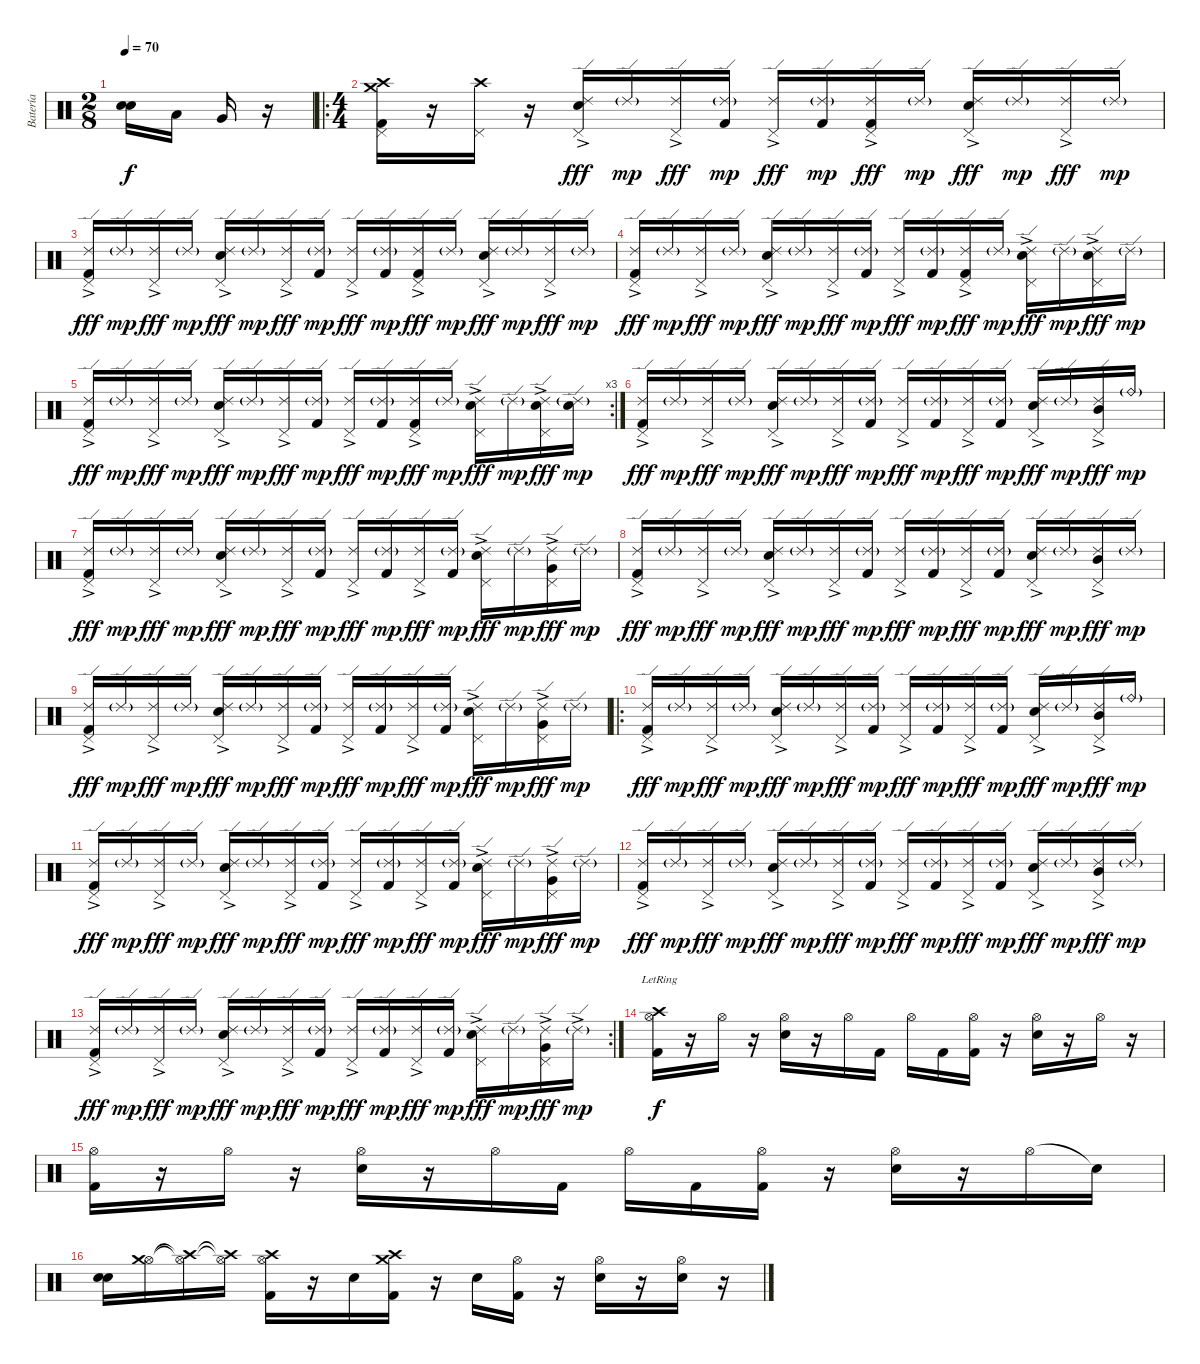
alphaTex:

\track ("Batería" "Batería") {instrument percussion}
\staff {score}
\articulation defaults
\ts (2 8)
\tempo 70
\clef neutral
\ks c
("Electric Snare (hit)" "Electric Snare (hit)").16{bd 60 dy f} "Low Tom (hit)".16 "Very Low Tom (hit)".16{bd 60} r.16 |
\ro
\ts (4 4)
("Crash medium (hit)" "Crash high (hit)" "Pedal Hi-Hat (hit)" "Kick (hit) 2").16 r.16 ("Crash high (hit)" "Pedal Hi-Hat (hit)").16 r.16 ("Ride (edge) 2"{ac} "Pedal Hi-Hat (hit)" "Electric Snare (hit)").16{dy fff} "Ride (edge) 2"{g}.16{dy mp} ("Ride (edge) 2"{ac} "Pedal Hi-Hat (hit)").16{dy fff} ("Ride (edge) 2"{g} "Kick (hit) 2").16{dy mp} ("Ride (edge) 2"{ac} "Pedal Hi-Hat (hit)").16{dy fff} ("Ride (edge) 2"{g} "Kick (hit) 2").16{dy mp} ("Ride (edge) 2"{ac} "Pedal Hi-Hat (hit)" "Kick (hit) 2").16{dy fff} "Ride (edge) 2"{g}.16{dy mp} ("Ride (edge) 2"{ac} "Pedal Hi-Hat (hit)" "Electric Snare (hit)").16{dy fff} "Ride (edge) 2"{g}.16{dy mp} ("Ride (edge) 2"{ac} "Pedal Hi-Hat (hit)").16{dy fff} "Ride (edge) 2"{g}.16{dy mp} |
("Ride (edge) 2"{ac} "Pedal Hi-Hat (hit)" "Kick (hit) 2").16{dy fff} "Ride (edge) 2"{g}.16{dy mp} ("Ride (edge) 2"{ac} "Pedal Hi-Hat (hit)").16{dy fff} "Ride (edge) 2"{g}.16{dy mp} ("Ride (edge) 2"{ac} "Pedal Hi-Hat (hit)" "Electric Snare (hit)").16{dy fff} "Ride (edge) 2"{g}.16{dy mp} ("Ride (edge) 2"{ac} "Pedal Hi-Hat (hit)").16{dy fff} ("Ride (edge) 2"{g} "Kick (hit) 2").16{dy mp} ("Ride (edge) 2"{ac} "Pedal Hi-Hat (hit)").16{dy fff} ("Ride (edge) 2"{g} "Kick (hit) 2").16{dy mp} ("Ride (edge) 2"{ac} "Pedal Hi-Hat (hit)" "Kick (hit) 2").16{dy fff} "Ride (edge) 2"{g}.16{dy mp} ("Ride (edge) 2"{ac} "Pedal Hi-Hat (hit)" "Electric Snare (hit)").16{dy fff} "Ride (edge) 2"{g}.16{dy mp} ("Ride (edge) 2"{ac} "Pedal Hi-Hat (hit)").16{dy fff} "Ride (edge) 2"{g}.16{dy mp} |
("Ride (edge) 2"{ac} "Pedal Hi-Hat (hit)" "Kick (hit) 2").16{dy fff} "Ride (edge) 2"{g}.16{dy mp} ("Ride (edge) 2"{ac} "Pedal Hi-Hat (hit)").16{dy fff} "Ride (edge) 2"{g}.16{dy mp} ("Ride (edge) 2"{ac} "Pedal Hi-Hat (hit)" "Electric Snare (hit)").16{dy fff} "Ride (edge) 2"{g}.16{dy mp} ("Ride (edge) 2"{ac} "Pedal Hi-Hat (hit)").16{dy fff} ("Ride (edge) 2"{g} "Kick (hit) 2").16{dy mp} ("Ride (edge) 2"{ac} "Pedal Hi-Hat (hit)").16{dy fff} ("Ride (edge) 2"{g} "Kick (hit) 2").16{dy mp} ("Ride (edge) 2"{ac} "Pedal Hi-Hat (hit)" "Kick (hit) 2").16{dy fff} "Ride (edge) 2"{g}.16{dy mp} ("Ride (edge) 2"{ac} "Pedal Hi-Hat (hit)" "Electric Snare (hit)").16{dy fff} "Ride (edge) 2"{g}.16{dy mp} ("Ride (edge) 2"{ac} "Pedal Hi-Hat (hit)" "Electric Snare (hit)").16{dy fff} "Ride (edge) 2"{g}.16{dy mp} |
\rc 3
("Ride (edge) 2"{ac} "Pedal Hi-Hat (hit)" "Kick (hit) 2").16{dy fff} "Ride (edge) 2"{g}.16{dy mp} ("Ride (edge) 2"{ac} "Pedal Hi-Hat (hit)").16{dy fff} "Ride (edge) 2"{g}.16{dy mp} ("Ride (edge) 2"{ac} "Pedal Hi-Hat (hit)" "Electric Snare (hit)").16{dy fff} "Ride (edge) 2"{g}.16{dy mp} ("Ride (edge) 2"{ac} "Pedal Hi-Hat (hit)").16{dy fff} ("Ride (edge) 2"{g} "Kick (hit) 2").16{dy mp} ("Ride (edge) 2"{ac} "Pedal Hi-Hat (hit)").16{dy fff} ("Ride (edge) 2"{g} "Kick (hit) 2").16{dy mp} ("Ride (edge) 2"{ac} "Pedal Hi-Hat (hit)" "Kick (hit) 2").16{dy fff} "Ride (edge) 2"{g}.16{dy mp} ("Ride (edge) 2"{ac} "Pedal Hi-Hat (hit)" "Electric Snare (hit)").16{dy fff} "Ride (edge) 2"{g}.16{dy mp} ("Ride (edge) 2"{ac} "Pedal Hi-Hat (hit)" "Electric Snare (hit)").16{dy fff} ("Ride (edge) 2"{g} "Electric Snare (hit)").16{dy mp} |
("Ride (edge) 2"{ac} "Pedal Hi-Hat (hit)" "Kick (hit) 2").16{dy fff} "Ride (edge) 2"{g}.16{dy mp} ("Ride (edge) 2"{ac} "Pedal Hi-Hat (hit)").16{dy fff} "Ride (edge) 2"{g}.16{dy mp} ("Ride (edge) 2"{ac} "Pedal Hi-Hat (hit)" "Electric Snare (hit)").16{dy fff} "Ride (edge) 2"{g}.16{dy mp} ("Ride (edge) 2"{ac} "Pedal Hi-Hat (hit)").16{dy fff} ("Ride (edge) 2"{g} "Kick (hit) 2").16{dy mp} ("Ride (edge) 2"{ac} "Pedal Hi-Hat (hit)").16{dy fff} ("Ride (edge) 2"{g} "Kick (hit) 2").16{dy mp} ("Ride (edge) 2"{ac} "Pedal Hi-Hat (hit)").16{dy fff} ("Ride (edge) 2"{g} "Kick (hit) 2").16{dy mp} ("Ride (edge) 2"{ac} "Pedal Hi-Hat (hit)" "Electric Snare (hit)").16{dy fff} "Ride (edge) 2"{g}.16{dy mp} ("Ride (edge) 2"{ac} "Pedal Hi-Hat (hit)" "Mid Tom (hit)"{ac}).16{dy fff} "Ride (bell)"{g}.16{dy mp} |
("Ride (edge) 2"{ac} "Pedal Hi-Hat (hit)" "Kick (hit) 2").16{dy fff} "Ride (edge) 2"{g}.16{dy mp} ("Ride (edge) 2"{ac} "Pedal Hi-Hat (hit)").16{dy fff} "Ride (edge) 2"{g}.16{dy mp} ("Ride (edge) 2"{ac} "Pedal Hi-Hat (hit)" "Electric Snare (hit)").16{dy fff} "Ride (edge) 2"{g}.16{dy mp} ("Ride (edge) 2"{ac} "Pedal Hi-Hat (hit)").16{dy fff} ("Ride (edge) 2"{g} "Kick (hit) 2").16{dy mp} ("Ride (edge) 2"{ac} "Pedal Hi-Hat (hit)").16{dy fff} ("Ride (edge) 2"{g} "Kick (hit) 2").16{dy mp} ("Ride (edge) 2"{ac} "Pedal Hi-Hat (hit)").16{dy fff} ("Ride (edge) 2"{g} "Kick (hit) 2").16{dy mp} ("Ride (edge) 2"{ac} "Pedal Hi-Hat (hit)" "Electric Snare (hit)").16{dy fff} "Ride (edge) 2"{g}.16{dy mp} ("Ride (edge) 2"{ac} "Pedal Hi-Hat (hit)" "Very Low Tom (hit)"{ac}).16{dy fff} "Ride (edge) 2"{g}.16{dy mp} |
("Ride (edge) 2"{ac} "Pedal Hi-Hat (hit)" "Kick (hit) 2").16{dy fff} "Ride (edge) 2"{g}.16{dy mp} ("Ride (edge) 2"{ac} "Pedal Hi-Hat (hit)").16{dy fff} "Ride (edge) 2"{g}.16{dy mp} ("Ride (edge) 2"{ac} "Pedal Hi-Hat (hit)" "Electric Snare (hit)").16{dy fff} "Ride (edge) 2"{g}.16{dy mp} ("Ride (edge) 2"{ac} "Pedal Hi-Hat (hit)").16{dy fff} ("Ride (edge) 2"{g} "Kick (hit) 2").16{dy mp} ("Ride (edge) 2"{ac} "Pedal Hi-Hat (hit)").16{dy fff} ("Ride (edge) 2"{g} "Kick (hit) 2").16{dy mp} ("Ride (edge) 2"{ac} "Pedal Hi-Hat (hit)").16{dy fff} ("Ride (edge) 2"{g} "Kick (hit) 2").16{dy mp} ("Ride (edge) 2"{ac} "Pedal Hi-Hat (hit)" "Electric Snare (hit)").16{dy fff} "Ride (edge) 2"{g}.16{dy mp} ("Ride (edge) 2"{ac} "Pedal Hi-Hat (hit)" "Mid Tom (hit)"{ac}).16{dy fff} "Ride (edge) 2"{g}.16{dy mp} |
("Ride (edge) 2"{ac} "Pedal Hi-Hat (hit)" "Kick (hit) 2").16{dy fff} "Ride (edge) 2"{g}.16{dy mp} ("Ride (edge) 2"{ac} "Pedal Hi-Hat (hit)").16{dy fff} "Ride (edge) 2"{g}.16{dy mp} ("Ride (edge) 2"{ac} "Pedal Hi-Hat (hit)" "Electric Snare (hit)").16{dy fff} "Ride (edge) 2"{g}.16{dy mp} ("Ride (edge) 2"{ac} "Pedal Hi-Hat (hit)").16{dy fff} ("Ride (edge) 2"{g} "Kick (hit) 2").16{dy mp} ("Ride (edge) 2"{ac} "Pedal Hi-Hat (hit)").16{dy fff} ("Ride (edge) 2"{g} "Kick (hit) 2").16{dy mp} ("Ride (edge) 2"{ac} "Pedal Hi-Hat (hit)").16{dy fff} ("Ride (edge) 2"{g} "Kick (hit) 2").16{dy mp} ("Ride (edge) 2"{ac} "Pedal Hi-Hat (hit)" "Electric Snare (hit)").16{dy fff} "Ride (edge) 2"{g}.16{dy mp} ("Ride (edge) 2"{ac} "Pedal Hi-Hat (hit)" "Very Low Tom (hit)"{ac}).16{dy fff} "Ride (edge) 2"{g}.16{dy mp} |
\ro
("Ride (edge) 2"{ac} "Pedal Hi-Hat (hit)" "Kick (hit) 2").16{dy fff} "Ride (edge) 2"{g}.16{dy mp} ("Ride (edge) 2"{ac} "Pedal Hi-Hat (hit)").16{dy fff} "Ride (edge) 2"{g}.16{dy mp} ("Ride (edge) 2"{ac} "Pedal Hi-Hat (hit)" "Electric Snare (hit)").16{dy fff} "Ride (edge) 2"{g}.16{dy mp} ("Ride (edge) 2"{ac} "Pedal Hi-Hat (hit)").16{dy fff} ("Ride (edge) 2"{g} "Kick (hit) 2").16{dy mp} ("Ride (edge) 2"{ac} "Pedal Hi-Hat (hit)").16{dy fff} ("Ride (edge) 2"{g} "Kick (hit) 2").16{dy mp} ("Ride (edge) 2"{ac} "Pedal Hi-Hat (hit)").16{dy fff} ("Ride (edge) 2"{g} "Kick (hit) 2").16{dy mp} ("Ride (edge) 2"{ac} "Pedal Hi-Hat (hit)" "Electric Snare (hit)").16{dy fff} "Ride (edge) 2"{g}.16{dy mp} ("Ride (edge) 2"{ac} "Pedal Hi-Hat (hit)" "Mid Tom (hit)"{ac}).16{dy fff} "Ride (bell)"{g}.16{dy mp} |
("Ride (edge) 2"{ac} "Pedal Hi-Hat (hit)" "Kick (hit) 2").16{dy fff} "Ride (edge) 2"{g}.16{dy mp} ("Ride (edge) 2"{ac} "Pedal Hi-Hat (hit)").16{dy fff} "Ride (edge) 2"{g}.16{dy mp} ("Ride (edge) 2"{ac} "Pedal Hi-Hat (hit)" "Electric Snare (hit)").16{dy fff} "Ride (edge) 2"{g}.16{dy mp} ("Ride (edge) 2"{ac} "Pedal Hi-Hat (hit)").16{dy fff} ("Ride (edge) 2"{g} "Kick (hit) 2").16{dy mp} ("Ride (edge) 2"{ac} "Pedal Hi-Hat (hit)").16{dy fff} ("Ride (edge) 2"{g} "Kick (hit) 2").16{dy mp} ("Ride (edge) 2"{ac} "Pedal Hi-Hat (hit)").16{dy fff} ("Ride (edge) 2"{g} "Kick (hit) 2").16{dy mp} ("Ride (edge) 2"{ac} "Pedal Hi-Hat (hit)" "Electric Snare (hit)").16{dy fff} "Ride (edge) 2"{g}.16{dy mp} ("Ride (edge) 2"{ac} "Pedal Hi-Hat (hit)" "Very Low Tom (hit)"{ac}).16{dy fff} "Ride (edge) 2"{g}.16{dy mp} |
("Ride (edge) 2"{ac} "Pedal Hi-Hat (hit)" "Kick (hit) 2").16{dy fff} "Ride (edge) 2"{g}.16{dy mp} ("Ride (edge) 2"{ac} "Pedal Hi-Hat (hit)").16{dy fff} "Ride (edge) 2"{g}.16{dy mp} ("Ride (edge) 2"{ac} "Pedal Hi-Hat (hit)" "Electric Snare (hit)").16{dy fff} "Ride (edge) 2"{g}.16{dy mp} ("Ride (edge) 2"{ac} "Pedal Hi-Hat (hit)").16{dy fff} ("Ride (edge) 2"{g} "Kick (hit) 2").16{dy mp} ("Ride (edge) 2"{ac} "Pedal Hi-Hat (hit)").16{dy fff} ("Ride (edge) 2"{g} "Kick (hit) 2").16{dy mp} ("Ride (edge) 2"{ac} "Pedal Hi-Hat (hit)").16{dy fff} ("Ride (edge) 2"{g} "Kick (hit) 2").16{dy mp} ("Ride (edge) 2"{ac} "Pedal Hi-Hat (hit)" "Electric Snare (hit)").16{dy fff} "Ride (edge) 2"{g}.16{dy mp} ("Ride (edge) 2"{ac} "Pedal Hi-Hat (hit)" "Mid Tom (hit)"{ac}).16{dy fff} "Ride (edge) 2"{g}.16{dy mp} |
\rc 2
("Ride (edge) 2"{ac} "Pedal Hi-Hat (hit)" "Kick (hit) 2").16{dy fff} "Ride (edge) 2"{g}.16{dy mp} ("Ride (edge) 2"{ac} "Pedal Hi-Hat (hit)").16{dy fff} "Ride (edge) 2"{g}.16{dy mp} ("Ride (edge) 2"{ac} "Pedal Hi-Hat (hit)" "Electric Snare (hit)").16{dy fff} "Ride (edge) 2"{g}.16{dy mp} ("Ride (edge) 2"{ac} "Pedal Hi-Hat (hit)").16{dy fff} ("Ride (edge) 2"{g} "Kick (hit) 2").16{dy mp} ("Ride (edge) 2"{ac} "Pedal Hi-Hat (hit)").16{dy fff} ("Ride (edge) 2"{g} "Kick (hit) 2").16{dy mp} ("Ride (edge) 2"{ac} "Pedal Hi-Hat (hit)").16{dy fff} ("Ride (edge) 2"{g} "Kick (hit) 2").16{dy mp} ("Ride (edge) 2"{ac} "Pedal Hi-Hat (hit)" "Electric Snare (hit)").16{dy fff} "Ride (edge) 2"{g}.16{dy mp} ("Ride (edge) 2"{ac} "Pedal Hi-Hat (hit)" "Very Low Tom (hit)"{ac}).16{dy fff} "Ride (edge) 2"{g ac}.16{dy mp} |
("Hi-Hat (open)" "Crash high (hit)"{lr} "Kick (hit) 2").16{dy f} r.16 "Hi-Hat (open)".16 r.16 ("Hi-Hat (open)" "Electric Snare (hit)").16 r.16 "Hi-Hat (open)".16 "Kick (hit) 2".16 "Hi-Hat (open)".16 "Kick (hit) 2".16 ("Hi-Hat (open)" "Kick (hit) 2").16 r.16 ("Hi-Hat (open)" "Electric Snare (hit)").16 r.16 "Hi-Hat (open)".16 r.16 |
("Hi-Hat (open)" "Kick (hit) 2").16 r.16 "Hi-Hat (open)".16 r.16 ("Hi-Hat (open)" "Electric Snare (hit)").16 r.16 "Hi-Hat (open)".16 "Kick (hit) 2".16 "Hi-Hat (open)".16 "Kick (hit) 2".16 ("Hi-Hat (open)" "Kick (hit) 2").16 r.16 ("Hi-Hat (open)" "Electric Snare (hit)").16 r.16 "Hi-Hat (open)".16 "Snare (hit)"{t}.16 |
("Electric Snare (hit)" "Electric Snare (hit)").16{bd 240} ("Hi-Hat (open)" "Crash medium (hit)").16 ("Hi-Hat (open)"{t} "Crash high (hit)"{t}).16 ("Hi-Hat (open)"{t} "Crash high (hit)"{t}).16 ("Hi-Hat (open)" "Crash high (hit)" "Kick (hit) 2").16 r.16 "Electric Snare (hit)".16 ("Crash high (hit)" "Crash medium (hit)" "Kick (hit) 2").16 r.16 "Electric Snare (hit)".16 ("Hi-Hat (open)" "Kick (hit) 2").16 r.16 ("Hi-Hat (open)" "Electric Snare (hit)").16 r.16 ("Hi-Hat (open)" "Electric Snare (hit)").16 r.16
